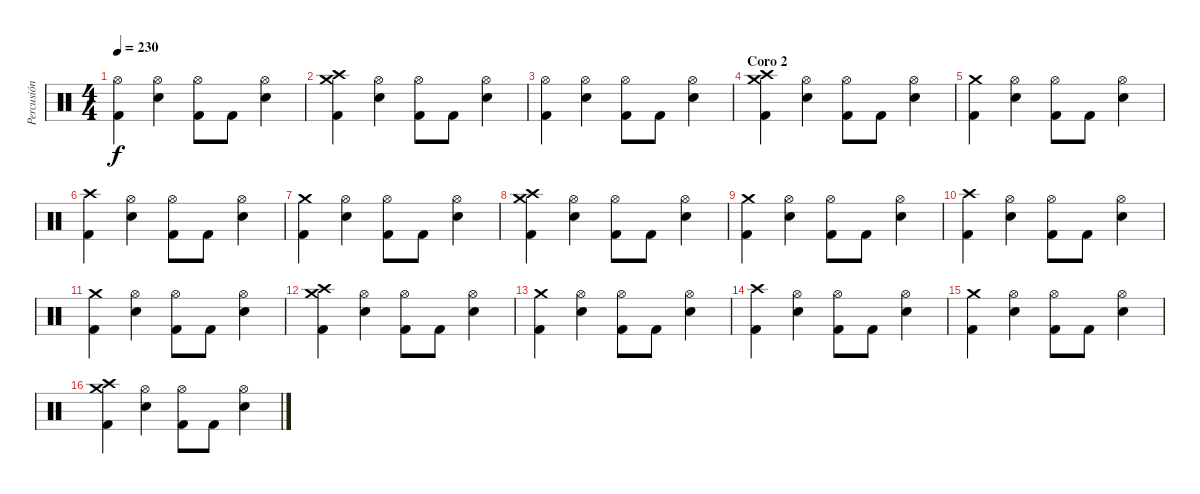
\track ("Percusión" "Percusión") {instrument percussion}
\staff {score}
\articulation defaults
\ts (4 4)
\tempo 230
\clef neutral
\ks c
("Hi-Hat (open)" "Kick (hit) 2").4{dy f} ("Hi-Hat (open)" "Snare (hit) 2").4 ("Hi-Hat (open)" "Kick (hit) 2").8 "Kick (hit) 2".8 ("Hi-Hat (open)" "Snare (hit) 2").4 |
("Crash medium (hit)" "Crash high (hit)" "Kick (hit) 2").4 ("Hi-Hat (open)" "Snare (hit) 2").4 ("Hi-Hat (open)" "Kick (hit) 2").8 "Kick (hit) 2".8 ("Hi-Hat (open)" "Snare (hit) 2").4 |
("Hi-Hat (open)" "Kick (hit) 2").4 ("Hi-Hat (open)" "Snare (hit) 2").4 ("Hi-Hat (open)" "Kick (hit) 2").8 "Kick (hit) 2".8 ("Hi-Hat (open)" "Snare (hit) 2").4 |
\section ("" "Coro 2")
("Crash medium (hit)" "Crash high (hit)" "Kick (hit) 2").4 ("Hi-Hat (open)" "Snare (hit) 2").4 ("Hi-Hat (open)" "Kick (hit) 2").8 "Kick (hit) 2".8 ("Hi-Hat (open)" "Snare (hit) 2").4 |
("Crash medium (hit)" "Kick (hit) 2").4 ("Hi-Hat (open)" "Snare (hit) 2").4 ("Hi-Hat (open)" "Kick (hit) 2").8 "Kick (hit) 2".8 ("Hi-Hat (open)" "Snare (hit) 2").4 |
("Crash high (hit)" "Kick (hit) 2").4 ("Hi-Hat (open)" "Snare (hit) 2").4 ("Hi-Hat (open)" "Kick (hit) 2").8 "Kick (hit) 2".8 ("Hi-Hat (open)" "Snare (hit) 2").4 |
("Crash medium (hit)" "Kick (hit) 2").4 ("Hi-Hat (open)" "Snare (hit) 2").4 ("Hi-Hat (open)" "Kick (hit) 2").8 "Kick (hit) 2".8 ("Hi-Hat (open)" "Snare (hit) 2").4 |
("Crash medium (hit)" "Crash high (hit)" "Kick (hit) 2").4 ("Hi-Hat (open)" "Snare (hit) 2").4 ("Hi-Hat (open)" "Kick (hit) 2").8 "Kick (hit) 2".8 ("Hi-Hat (open)" "Snare (hit) 2").4 |
("Crash medium (hit)" "Kick (hit) 2").4 ("Hi-Hat (open)" "Snare (hit) 2").4 ("Hi-Hat (open)" "Kick (hit) 2").8 "Kick (hit) 2".8 ("Hi-Hat (open)" "Snare (hit) 2").4 |
("Crash high (hit)" "Kick (hit) 2").4 ("Hi-Hat (open)" "Snare (hit) 2").4 ("Hi-Hat (open)" "Kick (hit) 2").8 "Kick (hit) 2".8 ("Hi-Hat (open)" "Snare (hit) 2").4 |
("Crash medium (hit)" "Kick (hit) 2").4 ("Hi-Hat (open)" "Snare (hit) 2").4 ("Hi-Hat (open)" "Kick (hit) 2").8 "Kick (hit) 2".8 ("Hi-Hat (open)" "Snare (hit) 2").4 |
("Crash medium (hit)" "Crash high (hit)" "Kick (hit) 2").4 ("Hi-Hat (open)" "Snare (hit) 2").4 ("Hi-Hat (open)" "Kick (hit) 2").8 "Kick (hit) 2".8 ("Hi-Hat (open)" "Snare (hit) 2").4 |
("Crash medium (hit)" "Kick (hit) 2").4 ("Hi-Hat (open)" "Snare (hit) 2").4 ("Hi-Hat (open)" "Kick (hit) 2").8 "Kick (hit) 2".8 ("Hi-Hat (open)" "Snare (hit) 2").4 |
("Crash high (hit)" "Kick (hit) 2").4 ("Hi-Hat (open)" "Snare (hit) 2").4 ("Hi-Hat (open)" "Kick (hit) 2").8 "Kick (hit) 2".8 ("Hi-Hat (open)" "Snare (hit) 2").4 |
("Crash medium (hit)" "Kick (hit) 2").4 ("Hi-Hat (open)" "Snare (hit) 2").4 ("Hi-Hat (open)" "Kick (hit) 2").8 "Kick (hit) 2".8 ("Hi-Hat (open)" "Snare (hit) 2").4 |
("Crash medium (hit)" "Crash high (hit)" "Kick (hit) 2").4 ("Hi-Hat (open)" "Snare (hit) 2").4 ("Hi-Hat (open)" "Kick (hit) 2").8 "Kick (hit) 2".8 ("Hi-Hat (open)" "Snare (hit) 2").4
